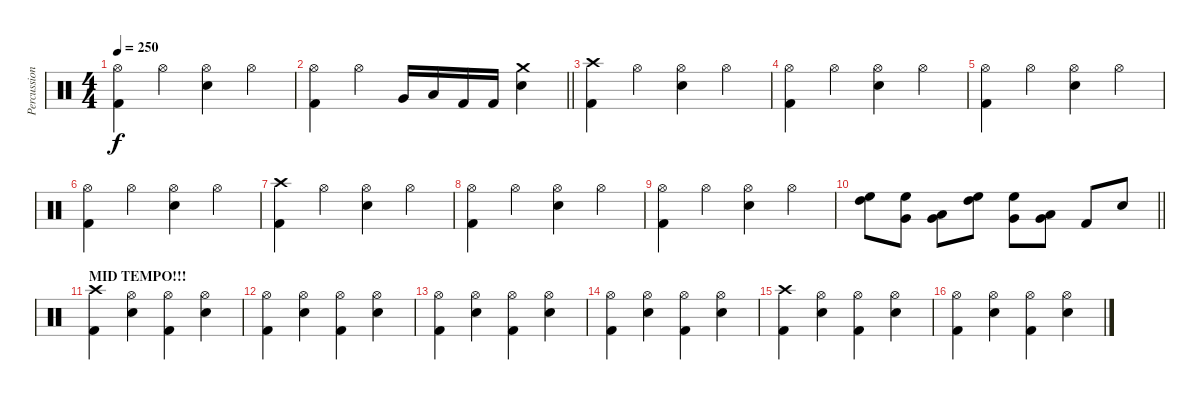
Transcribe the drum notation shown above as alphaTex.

\track ("Percussion" "Percussion") {instrument percussion}
\staff {score}
\articulation defaults
\ts (4 4)
\tempo 250
\clef neutral
\ks c
("Hi-Hat (open)" "Kick (hit) 2").4{dy f} "Hi-Hat (open)".4 ("Hi-Hat (open)" "Electric Snare (hit)").4 "Hi-Hat (open)".4 |
\barLineRight lightlight
("Hi-Hat (open)" "Kick (hit) 2").4 "Hi-Hat (open)".4 "Very Low Tom (hit)".16 "Low Tom (hit)".16 "Kick (hit) 2".16 "Kick (hit) 2".16 ("Crash medium (hit)" "Electric Snare (hit)").4 |
("Crash high (hit)" "Kick (hit) 2").4 "Hi-Hat (open)".4 ("Hi-Hat (open)" "Electric Snare (hit)").4 "Hi-Hat (open)".4 |
("Hi-Hat (open)" "Kick (hit) 2").4 "Hi-Hat (open)".4 ("Hi-Hat (open)" "Electric Snare (hit)").4 "Hi-Hat (open)".4 |
("Hi-Hat (open)" "Kick (hit) 2").4 "Hi-Hat (open)".4 ("Hi-Hat (open)" "Electric Snare (hit)").4 "Hi-Hat (open)".4 |
("Hi-Hat (open)" "Kick (hit) 2").4 "Hi-Hat (open)".4 ("Hi-Hat (open)" "Electric Snare (hit)").4 "Hi-Hat (open)".4 |
("Crash high (hit)" "Kick (hit) 2").4 "Hi-Hat (open)".4 ("Hi-Hat (open)" "Electric Snare (hit)").4 "Hi-Hat (open)".4 |
("Hi-Hat (open)" "Kick (hit) 2").4 "Hi-Hat (open)".4 ("Hi-Hat (open)" "Electric Snare (hit)").4 "Hi-Hat (open)".4 |
("Hi-Hat (open)" "Kick (hit) 2").4 "Hi-Hat (open)".4 ("Hi-Hat (open)" "Electric Snare (hit)").4 "Hi-Hat (open)".4 |
\barLineRight lightlight
("High Floor Tom (hit)" "High Tom (hit)").8 ("High Floor Tom (hit)" "Very Low Tom (hit)").8 ("Low Tom (hit)" "Very Low Tom (hit)").8 ("High Floor Tom (hit)" "High Tom (hit)").8 ("High Floor Tom (hit)" "Very Low Tom (hit)").8 ("Low Tom (hit)" "Very Low Tom (hit)").8 "Kick (hit) 2".8 "Electric Snare (hit)".8 |
\section ("" "MID TEMPO!!!")
("Crash high (hit)" "Kick (hit) 2").4 ("Hi-Hat (open)" "Electric Snare (hit)").4 ("Hi-Hat (open)" "Kick (hit) 2").4 ("Hi-Hat (open)" "Electric Snare (hit)").4 |
("Hi-Hat (open)" "Kick (hit) 2").4 ("Hi-Hat (open)" "Electric Snare (hit)").4 ("Hi-Hat (open)" "Kick (hit) 2").4 ("Hi-Hat (open)" "Electric Snare (hit)").4 |
("Hi-Hat (open)" "Kick (hit) 2").4 ("Hi-Hat (open)" "Electric Snare (hit)").4 ("Hi-Hat (open)" "Kick (hit) 2").4 ("Hi-Hat (open)" "Electric Snare (hit)").4 |
("Hi-Hat (open)" "Kick (hit) 2").4 ("Hi-Hat (open)" "Electric Snare (hit)").4 ("Hi-Hat (open)" "Kick (hit) 2").4 ("Hi-Hat (open)" "Electric Snare (hit)").4 |
("Crash high (hit)" "Kick (hit) 2").4 ("Hi-Hat (open)" "Electric Snare (hit)").4 ("Hi-Hat (open)" "Kick (hit) 2").4 ("Hi-Hat (open)" "Electric Snare (hit)").4 |
("Hi-Hat (open)" "Kick (hit) 2").4 ("Hi-Hat (open)" "Electric Snare (hit)").4 ("Hi-Hat (open)" "Kick (hit) 2").4 ("Hi-Hat (open)" "Electric Snare (hit)").4
